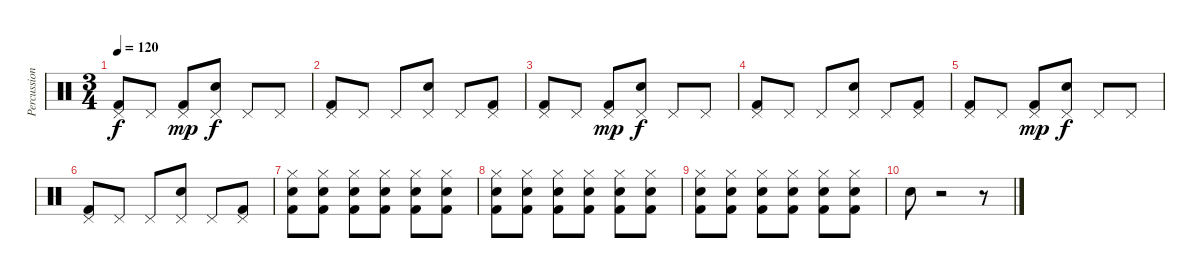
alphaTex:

\track ("Percussions" "Percussion") {instrument percussion}
\staff {score}
\articulation defaults
\ts (3 4)
\tempo 120
\clef neutral
\ks c
("Pedal Hi-Hat (hit)" "Kick (hit) 2").8{dy f} "Pedal Hi-Hat (hit)".8 ("Pedal Hi-Hat (hit)" "Kick (hit) 2").8{dy mp} ("Pedal Hi-Hat (hit)" "Electric Snare (hit)").8{dy f} "Pedal Hi-Hat (hit)".8 "Pedal Hi-Hat (hit)".8 |
("Pedal Hi-Hat (hit)" "Kick (hit) 2").8 "Pedal Hi-Hat (hit)".8 "Pedal Hi-Hat (hit)".8 ("Pedal Hi-Hat (hit)" "Electric Snare (hit)").8 "Pedal Hi-Hat (hit)".8 ("Pedal Hi-Hat (hit)" "Kick (hit) 2").8 |
("Pedal Hi-Hat (hit)" "Kick (hit) 2").8 "Pedal Hi-Hat (hit)".8 ("Pedal Hi-Hat (hit)" "Kick (hit) 2").8{dy mp} ("Pedal Hi-Hat (hit)" "Electric Snare (hit)").8{dy f} "Pedal Hi-Hat (hit)".8 "Pedal Hi-Hat (hit)".8 |
("Pedal Hi-Hat (hit)" "Kick (hit) 2").8 "Pedal Hi-Hat (hit)".8 "Pedal Hi-Hat (hit)".8 ("Pedal Hi-Hat (hit)" "Electric Snare (hit)").8 "Pedal Hi-Hat (hit)".8 ("Pedal Hi-Hat (hit)" "Kick (hit) 2").8 |
("Pedal Hi-Hat (hit)" "Kick (hit) 2").8 "Pedal Hi-Hat (hit)".8 ("Pedal Hi-Hat (hit)" "Kick (hit) 2").8{dy mp} ("Pedal Hi-Hat (hit)" "Electric Snare (hit)").8{dy f} "Pedal Hi-Hat (hit)".8 "Pedal Hi-Hat (hit)".8 |
("Pedal Hi-Hat (hit)" "Kick (hit) 2").8 "Pedal Hi-Hat (hit)".8 "Pedal Hi-Hat (hit)".8 ("Pedal Hi-Hat (hit)" "Electric Snare (hit)").8 "Pedal Hi-Hat (hit)".8 ("Pedal Hi-Hat (hit)" "Kick (hit) 2").8 |
("Hi-Hat (closed)" "Electric Snare (hit)" "Kick (hit) 2").8 ("Hi-Hat (closed)" "Electric Snare (hit)" "Kick (hit) 2").8 ("Hi-Hat (closed)" "Electric Snare (hit)" "Kick (hit) 2").8 ("Hi-Hat (closed)" "Electric Snare (hit)" "Kick (hit) 2").8 ("Hi-Hat (closed)" "Electric Snare (hit)" "Kick (hit) 2").8 ("Hi-Hat (closed)" "Electric Snare (hit)" "Kick (hit) 2").8 |
("Hi-Hat (closed)" "Electric Snare (hit)" "Kick (hit) 2").8 ("Hi-Hat (closed)" "Electric Snare (hit)" "Kick (hit) 2").8 ("Hi-Hat (closed)" "Electric Snare (hit)" "Kick (hit) 2").8 ("Hi-Hat (closed)" "Electric Snare (hit)" "Kick (hit) 2").8 ("Hi-Hat (closed)" "Electric Snare (hit)" "Kick (hit) 2").8 ("Hi-Hat (closed)" "Electric Snare (hit)" "Kick (hit) 2").8 |
("Hi-Hat (closed)" "Electric Snare (hit)" "Kick (hit) 2").8 ("Hi-Hat (closed)" "Electric Snare (hit)" "Kick (hit) 2").8 ("Hi-Hat (closed)" "Electric Snare (hit)" "Kick (hit) 2").8 ("Hi-Hat (closed)" "Electric Snare (hit)" "Kick (hit) 2").8 ("Hi-Hat (closed)" "Electric Snare (hit)" "Kick (hit) 2").8 ("Hi-Hat (closed)" "Electric Snare (hit)" "Kick (hit) 2").8 |
"Electric Snare (hit)".8 r.2 r.8
